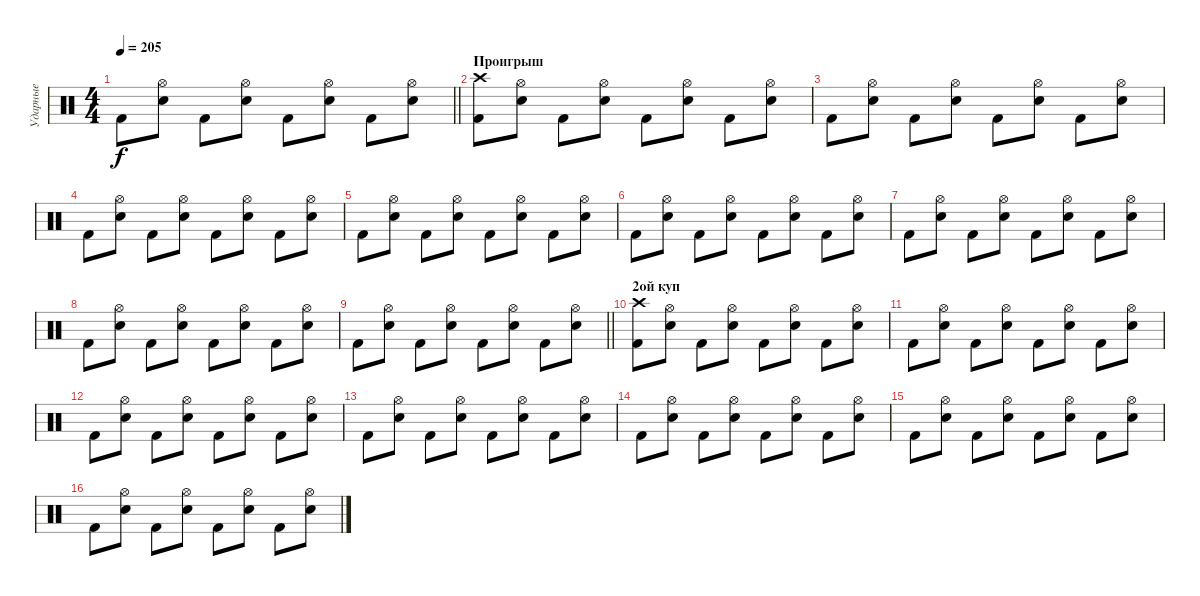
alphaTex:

\track ("Ударные" "Ударные") {instrument percussion}
\staff {score}
\articulation defaults
\ts (4 4)
\tempo 205
\clef neutral
\barLineRight lightlight
\ks c "Kick (hit) 2".8{dy f}
("Hi-Hat (open)" "Electric Snare (hit)").8 "Kick (hit) 2".8 ("Hi-Hat (open)" "Electric Snare (hit)").8 "Kick (hit) 2".8 ("Hi-Hat (open)" "Electric Snare (hit)").8 "Kick (hit) 2".8 ("Hi-Hat (open)" "Electric Snare (hit)").8 |
\section ("" "Проигрыш")
("Crash high (hit)" "Kick (hit) 2").8 ("Hi-Hat (open)" "Electric Snare (hit)").8 "Kick (hit) 2".8 ("Hi-Hat (open)" "Electric Snare (hit)").8 "Kick (hit) 2".8 ("Hi-Hat (open)" "Electric Snare (hit)").8 "Kick (hit) 2".8 ("Hi-Hat (open)" "Electric Snare (hit)").8 |
"Kick (hit) 2".8 ("Hi-Hat (open)" "Electric Snare (hit)").8 "Kick (hit) 2".8 ("Hi-Hat (open)" "Electric Snare (hit)").8 "Kick (hit) 2".8 ("Hi-Hat (open)" "Electric Snare (hit)").8 "Kick (hit) 2".8 ("Hi-Hat (open)" "Electric Snare (hit)").8 |
"Kick (hit) 2".8 ("Hi-Hat (open)" "Electric Snare (hit)").8 "Kick (hit) 2".8 ("Hi-Hat (open)" "Electric Snare (hit)").8 "Kick (hit) 2".8 ("Hi-Hat (open)" "Electric Snare (hit)").8 "Kick (hit) 2".8 ("Hi-Hat (open)" "Electric Snare (hit)").8 |
"Kick (hit) 2".8 ("Hi-Hat (open)" "Electric Snare (hit)").8 "Kick (hit) 2".8 ("Hi-Hat (open)" "Electric Snare (hit)").8 "Kick (hit) 2".8 ("Hi-Hat (open)" "Electric Snare (hit)").8 "Kick (hit) 2".8 ("Hi-Hat (open)" "Electric Snare (hit)").8 |
"Kick (hit) 2".8 ("Hi-Hat (open)" "Electric Snare (hit)").8 "Kick (hit) 2".8 ("Hi-Hat (open)" "Electric Snare (hit)").8 "Kick (hit) 2".8 ("Hi-Hat (open)" "Electric Snare (hit)").8 "Kick (hit) 2".8 ("Hi-Hat (open)" "Electric Snare (hit)").8 |
"Kick (hit) 2".8 ("Hi-Hat (open)" "Electric Snare (hit)").8 "Kick (hit) 2".8 ("Hi-Hat (open)" "Electric Snare (hit)").8 "Kick (hit) 2".8 ("Hi-Hat (open)" "Electric Snare (hit)").8 "Kick (hit) 2".8 ("Hi-Hat (open)" "Electric Snare (hit)").8 |
"Kick (hit) 2".8 ("Hi-Hat (open)" "Electric Snare (hit)").8 "Kick (hit) 2".8 ("Hi-Hat (open)" "Electric Snare (hit)").8 "Kick (hit) 2".8 ("Hi-Hat (open)" "Electric Snare (hit)").8 "Kick (hit) 2".8 ("Hi-Hat (open)" "Electric Snare (hit)").8 |
\barLineRight lightlight "Kick (hit) 2".8
("Hi-Hat (open)" "Electric Snare (hit)").8 "Kick (hit) 2".8 ("Hi-Hat (open)" "Electric Snare (hit)").8 "Kick (hit) 2".8 ("Hi-Hat (open)" "Electric Snare (hit)").8 "Kick (hit) 2".8 ("Hi-Hat (open)" "Electric Snare (hit)").8 |
\section ("" "2ой куп")
("Crash high (hit)" "Kick (hit) 2").8 ("Hi-Hat (open)" "Electric Snare (hit)").8 "Kick (hit) 2".8 ("Hi-Hat (open)" "Electric Snare (hit)").8 "Kick (hit) 2".8 ("Hi-Hat (open)" "Electric Snare (hit)").8 "Kick (hit) 2".8 ("Hi-Hat (open)" "Electric Snare (hit)").8 |
"Kick (hit) 2".8 ("Hi-Hat (open)" "Electric Snare (hit)").8 "Kick (hit) 2".8 ("Hi-Hat (open)" "Electric Snare (hit)").8 "Kick (hit) 2".8 ("Hi-Hat (open)" "Electric Snare (hit)").8 "Kick (hit) 2".8 ("Hi-Hat (open)" "Electric Snare (hit)").8 |
"Kick (hit) 2".8 ("Hi-Hat (open)" "Electric Snare (hit)").8 "Kick (hit) 2".8 ("Hi-Hat (open)" "Electric Snare (hit)").8 "Kick (hit) 2".8 ("Hi-Hat (open)" "Electric Snare (hit)").8 "Kick (hit) 2".8 ("Hi-Hat (open)" "Electric Snare (hit)").8 |
"Kick (hit) 2".8 ("Hi-Hat (open)" "Electric Snare (hit)").8 "Kick (hit) 2".8 ("Hi-Hat (open)" "Electric Snare (hit)").8 "Kick (hit) 2".8 ("Hi-Hat (open)" "Electric Snare (hit)").8 "Kick (hit) 2".8 ("Hi-Hat (open)" "Electric Snare (hit)").8 |
"Kick (hit) 2".8 ("Hi-Hat (open)" "Electric Snare (hit)").8 "Kick (hit) 2".8 ("Hi-Hat (open)" "Electric Snare (hit)").8 "Kick (hit) 2".8 ("Hi-Hat (open)" "Electric Snare (hit)").8 "Kick (hit) 2".8 ("Hi-Hat (open)" "Electric Snare (hit)").8 |
"Kick (hit) 2".8 ("Hi-Hat (open)" "Electric Snare (hit)").8 "Kick (hit) 2".8 ("Hi-Hat (open)" "Electric Snare (hit)").8 "Kick (hit) 2".8 ("Hi-Hat (open)" "Electric Snare (hit)").8 "Kick (hit) 2".8 ("Hi-Hat (open)" "Electric Snare (hit)").8 |
"Kick (hit) 2".8 ("Hi-Hat (open)" "Electric Snare (hit)").8 "Kick (hit) 2".8 ("Hi-Hat (open)" "Electric Snare (hit)").8 "Kick (hit) 2".8 ("Hi-Hat (open)" "Electric Snare (hit)").8 "Kick (hit) 2".8 ("Hi-Hat (open)" "Electric Snare (hit)").8
